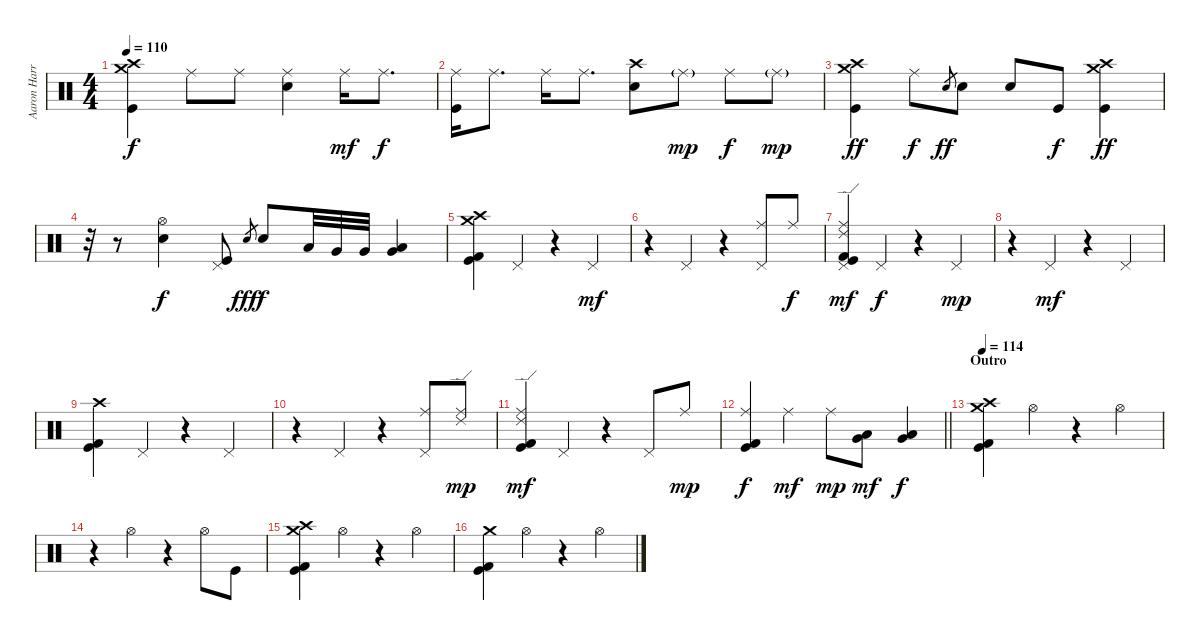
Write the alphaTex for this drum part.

\track ("Aaron Harris" "Aaron Harr") {instrument percussion}
\staff {score}
\articulation defaults
\ts (4 4)
\tempo 110
\clef neutral
\ks c
("Crash medium (hit)" "Crash high (hit)" "Kick (hit)").4{dy f} "Ride (middle)".8 "Ride (middle)".8 ("Ride (middle)" "Electric Snare (hit)").4 "Ride (middle)".16{dy mf} "Ride (middle)".8{d dy f} |
("Ride (middle)" "Kick (hit)").16 "Ride (middle)".8{d} "Ride (middle)".16 "Ride (middle)".8{d} ("Crash high (hit)" "Electric Snare (hit)").8 "Ride (middle)"{g}.8{dy mp} "Ride (middle)".8{dy f} "Ride (middle)"{g}.8{dy mp} |
("Crash medium (hit)" "Crash high (hit)" "Kick (hit)").4{dy ff} "Ride (middle)".8{dy f} "Electric Snare (hit)".8{gr dy ff} "Electric Snare (hit)".8 "Electric Snare (hit)".8 "Kick (hit)".8{dy f} ("Crash medium (hit)" "Crash high (hit)" "Kick (hit)").4{dy ff} |
r.32 r.8 ("Hi-Hat (open)" "Electric Snare (hit)").4{dy f} ("Pedal Hi-Hat (hit)" "Kick (hit)").8 "Electric Snare (hit)".8{gr dy fff} "Electric Snare (hit)".8{dy f} "Low Tom (hit)".32 "Very Low Tom (hit)".32 "Very Low Tom (hit)".32 ("Very Low Tom (hit)" "Low Floor Tom (hit)").4 |
("Crash medium (hit)" "Crash high (hit)" "Kick (hit) 2" "Kick (hit)").4 "Pedal Hi-Hat (hit)".4 r.4 "Pedal Hi-Hat (hit)".4{dy mf} |
r.4 "Pedal Hi-Hat (hit)".4 r.4 ("Ride (middle)" "Pedal Hi-Hat (hit)").8 "Ride (middle)".8{dy f} |
("Ride (edge) 2" "Ride (middle)" "Pedal Hi-Hat (hit)" "Kick (hit) 2" "Kick (hit)").4{dy mf} "Pedal Hi-Hat (hit)".4{dy f} r.4 "Pedal Hi-Hat (hit)".4{dy mp} |
r.4 "Pedal Hi-Hat (hit)".4{dy mf} r.4 "Pedal Hi-Hat (hit)".4 |
("Crash high (hit)" "Kick (hit) 2" "Kick (hit)").4 "Pedal Hi-Hat (hit)".4 r.4 "Pedal Hi-Hat (hit)".4 |
r.4 "Pedal Hi-Hat (hit)".4 r.4 ("Ride (middle)" "Pedal Hi-Hat (hit)").8 ("Ride (middle)" "Ride (edge) 2").8{dy mp} |
("Ride (middle)" "Ride (edge) 2" "Kick (hit) 2" "Kick (hit)").4{dy mf} "Pedal Hi-Hat (hit)".4 r.4 "Pedal Hi-Hat (hit)".8 "Ride (middle)".8{dy mp} |
\barLineRight lightlight
("Ride (middle)" "Kick (hit) 2" "Kick (hit)").4{dy f} "Ride (middle)".4{dy mf} "Ride (middle)".8{dy mp} ("Low Tom (hit)" "Very Low Tom (hit)").8{dy mf} ("Low Tom (hit)" "Very Low Tom (hit)").4{dy f} |
\section ("" "Outro")
\tempo 114
("Crash medium (hit)" "Crash high (hit)" "Kick (hit) 2" "Kick (hit)").4 "Hi-Hat (open)".4 r.4 "Hi-Hat (open)".4 |
r.4 "Hi-Hat (open)".4 r.4 "Hi-Hat (open)".8 "Kick (hit)".8 |
("Crash medium (hit)" "Crash high (hit)" "Kick (hit) 2" "Kick (hit)").4 "Hi-Hat (open)".4 r.4 "Hi-Hat (open)".4 |
("Crash medium (hit)" "Kick (hit) 2" "Kick (hit)").4 "Hi-Hat (open)".4 r.4 "Hi-Hat (open)".4
